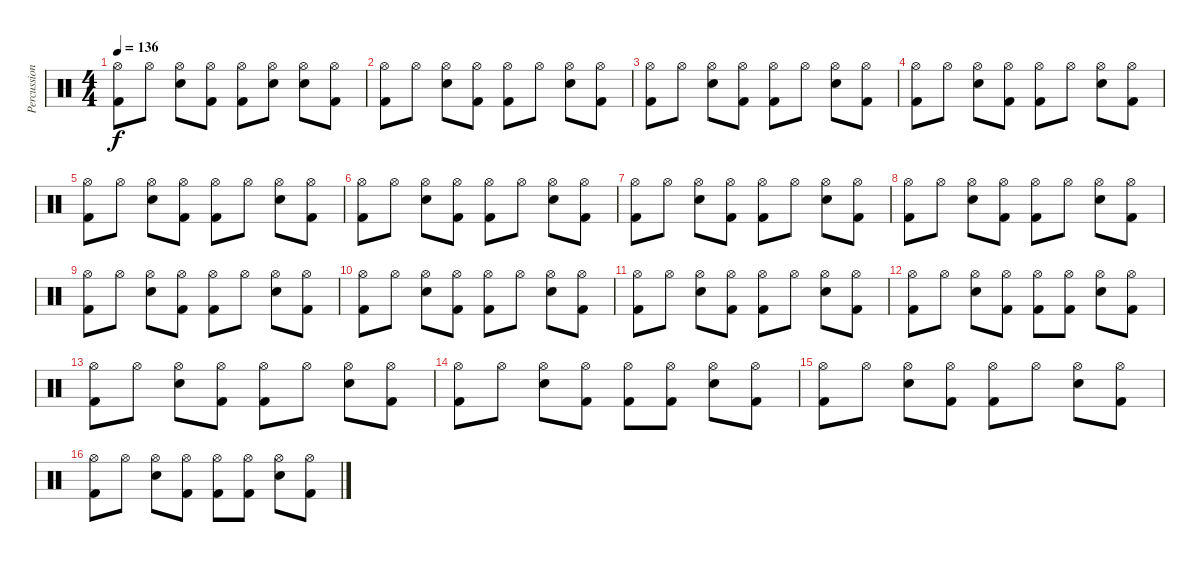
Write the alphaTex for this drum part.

\track ("Percussion" "Percussion") {instrument percussion}
\staff {score}
\articulation defaults
\ts (4 4)
\tempo 136
\clef neutral
\ks c
("Hi-Hat (open)" "Kick (hit) 2").8{dy f} "Hi-Hat (open)".8 ("Hi-Hat (open)" "Electric Snare (hit)").8 ("Hi-Hat (open)" "Kick (hit) 2").8 ("Hi-Hat (open)" "Kick (hit) 2").8 ("Hi-Hat (open)" "Electric Snare (hit)").8 ("Hi-Hat (open)" "Electric Snare (hit)").8 ("Hi-Hat (open)" "Kick (hit) 2").8 |
("Hi-Hat (open)" "Kick (hit) 2").8 "Hi-Hat (open)".8 ("Hi-Hat (open)" "Electric Snare (hit)").8 ("Hi-Hat (open)" "Kick (hit) 2").8 ("Hi-Hat (open)" "Kick (hit) 2").8 "Hi-Hat (open)".8 ("Hi-Hat (open)" "Electric Snare (hit)").8 ("Hi-Hat (open)" "Kick (hit) 2").8 |
("Hi-Hat (open)" "Kick (hit) 2").8 "Hi-Hat (open)".8 ("Hi-Hat (open)" "Electric Snare (hit)").8 ("Hi-Hat (open)" "Kick (hit) 2").8 ("Hi-Hat (open)" "Kick (hit) 2").8 "Hi-Hat (open)".8 ("Hi-Hat (open)" "Electric Snare (hit)").8 ("Hi-Hat (open)" "Kick (hit) 2").8 |
("Hi-Hat (open)" "Kick (hit) 2").8 "Hi-Hat (open)".8 ("Hi-Hat (open)" "Electric Snare (hit)").8 ("Hi-Hat (open)" "Kick (hit) 2").8 ("Hi-Hat (open)" "Kick (hit) 2").8 "Hi-Hat (open)".8 ("Hi-Hat (open)" "Electric Snare (hit)").8 ("Hi-Hat (open)" "Kick (hit) 2").8 |
("Hi-Hat (open)" "Kick (hit) 2").8 "Hi-Hat (open)".8 ("Hi-Hat (open)" "Electric Snare (hit)").8 ("Hi-Hat (open)" "Kick (hit) 2").8 ("Hi-Hat (open)" "Kick (hit) 2").8 "Hi-Hat (open)".8 ("Hi-Hat (open)" "Electric Snare (hit)").8 ("Hi-Hat (open)" "Kick (hit) 2").8 |
("Hi-Hat (open)" "Kick (hit) 2").8 "Hi-Hat (open)".8 ("Hi-Hat (open)" "Electric Snare (hit)").8 ("Hi-Hat (open)" "Kick (hit) 2").8 ("Hi-Hat (open)" "Kick (hit) 2").8 "Hi-Hat (open)".8 ("Hi-Hat (open)" "Electric Snare (hit)").8 ("Hi-Hat (open)" "Kick (hit) 2").8 |
("Hi-Hat (open)" "Kick (hit) 2").8 "Hi-Hat (open)".8 ("Hi-Hat (open)" "Electric Snare (hit)").8 ("Hi-Hat (open)" "Kick (hit) 2").8 ("Hi-Hat (open)" "Kick (hit) 2").8 "Hi-Hat (open)".8 ("Hi-Hat (open)" "Electric Snare (hit)").8 ("Hi-Hat (open)" "Kick (hit) 2").8 |
("Hi-Hat (open)" "Kick (hit) 2").8 "Hi-Hat (open)".8 ("Hi-Hat (open)" "Electric Snare (hit)").8 ("Hi-Hat (open)" "Kick (hit) 2").8 ("Hi-Hat (open)" "Kick (hit) 2").8 "Hi-Hat (open)".8 ("Hi-Hat (open)" "Electric Snare (hit)").8 ("Hi-Hat (open)" "Kick (hit) 2").8 |
("Hi-Hat (open)" "Kick (hit) 2").8 "Hi-Hat (open)".8 ("Hi-Hat (open)" "Electric Snare (hit)").8 ("Hi-Hat (open)" "Kick (hit) 2").8 ("Hi-Hat (open)" "Kick (hit) 2").8 "Hi-Hat (open)".8 ("Hi-Hat (open)" "Electric Snare (hit)").8 ("Hi-Hat (open)" "Kick (hit) 2").8 |
("Hi-Hat (open)" "Kick (hit) 2").8 "Hi-Hat (open)".8 ("Hi-Hat (open)" "Electric Snare (hit)").8 ("Hi-Hat (open)" "Kick (hit) 2").8 ("Hi-Hat (open)" "Kick (hit) 2").8 "Hi-Hat (open)".8 ("Hi-Hat (open)" "Electric Snare (hit)").8 ("Hi-Hat (open)" "Kick (hit) 2").8 |
("Hi-Hat (open)" "Kick (hit) 2").8 "Hi-Hat (open)".8 ("Hi-Hat (open)" "Electric Snare (hit)").8 ("Hi-Hat (open)" "Kick (hit) 2").8 ("Hi-Hat (open)" "Kick (hit) 2").8 "Hi-Hat (open)".8 ("Hi-Hat (open)" "Electric Snare (hit)").8 ("Hi-Hat (open)" "Kick (hit) 2").8 |
("Hi-Hat (open)" "Kick (hit) 2").8 "Hi-Hat (open)".8 ("Hi-Hat (open)" "Electric Snare (hit)").8 ("Hi-Hat (open)" "Kick (hit) 2").8 ("Hi-Hat (open)" "Kick (hit) 2").8 ("Hi-Hat (open)" "Kick (hit) 2").8 ("Hi-Hat (open)" "Electric Snare (hit)").8 ("Hi-Hat (open)" "Kick (hit) 2").8 |
("Hi-Hat (open)" "Kick (hit) 2").8 "Hi-Hat (open)".8 ("Hi-Hat (open)" "Electric Snare (hit)").8 ("Hi-Hat (open)" "Kick (hit) 2").8 ("Hi-Hat (open)" "Kick (hit) 2").8 "Hi-Hat (open)".8 ("Hi-Hat (open)" "Electric Snare (hit)").8 ("Hi-Hat (open)" "Kick (hit) 2").8 |
("Hi-Hat (open)" "Kick (hit) 2").8{volume 0} "Hi-Hat (open)".8 ("Hi-Hat (open)" "Electric Snare (hit)").8 ("Hi-Hat (open)" "Kick (hit) 2").8 ("Hi-Hat (open)" "Kick (hit) 2").8 ("Hi-Hat (open)" "Kick (hit) 2").8 ("Hi-Hat (open)" "Electric Snare (hit)").8 ("Hi-Hat (open)" "Kick (hit) 2").8 |
("Hi-Hat (open)" "Kick (hit) 2").8 "Hi-Hat (open)".8 ("Hi-Hat (open)" "Electric Snare (hit)").8 ("Hi-Hat (open)" "Kick (hit) 2").8 ("Hi-Hat (open)" "Kick (hit) 2").8 "Hi-Hat (open)".8 ("Hi-Hat (open)" "Electric Snare (hit)").8 ("Hi-Hat (open)" "Kick (hit) 2").8 |
("Hi-Hat (open)" "Kick (hit) 2").8 "Hi-Hat (open)".8 ("Hi-Hat (open)" "Electric Snare (hit)").8 ("Hi-Hat (open)" "Kick (hit) 2").8 ("Hi-Hat (open)" "Kick (hit) 2").8 ("Hi-Hat (open)" "Kick (hit) 2").8 ("Hi-Hat (open)" "Electric Snare (hit)").8 ("Hi-Hat (open)" "Kick (hit) 2").8
